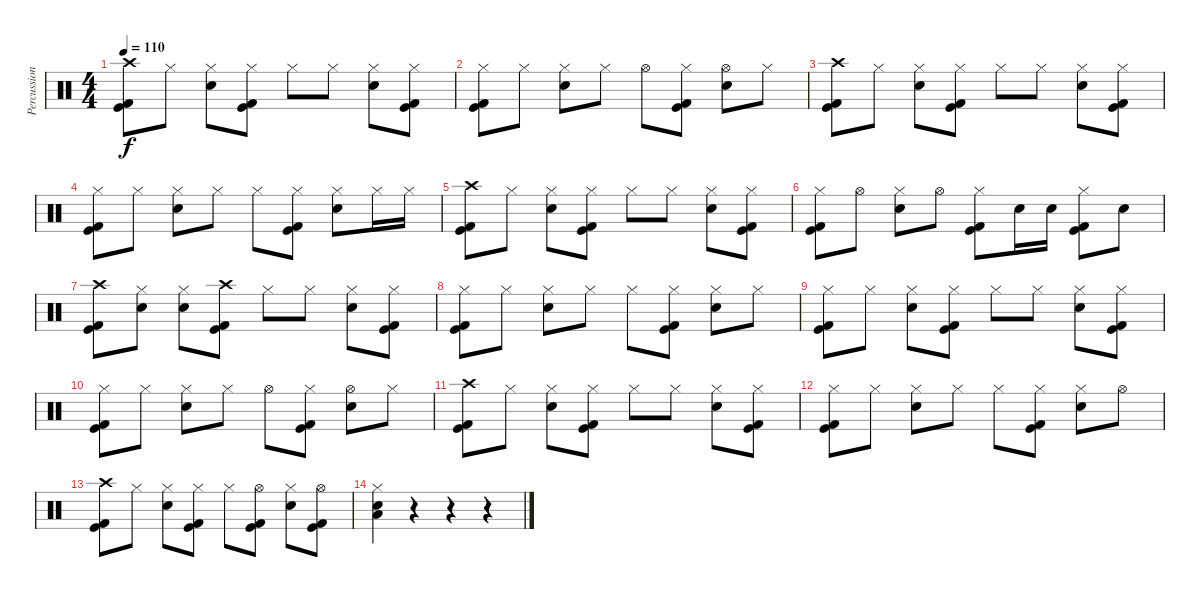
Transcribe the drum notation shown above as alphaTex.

\track ("Percussion" "Percussion") {instrument percussion}
\staff {score}
\articulation defaults
\ts (4 4)
\tempo 110
\clef neutral
\ks c
("Crash high (hit)" "Kick (hit)" "Kick (hit) 2").8{dy f} "Hi-Hat (closed)".8 ("Hi-Hat (closed)" "Snare (hit) 2").8 ("Hi-Hat (closed)" "Kick (hit)" "Kick (hit) 2").8 "Hi-Hat (closed)".8 "Hi-Hat (closed)".8 ("Hi-Hat (closed)" "Snare (hit) 2").8 ("Hi-Hat (closed)" "Kick (hit)" "Kick (hit) 2").8 |
("Hi-Hat (closed)" "Kick (hit)" "Kick (hit) 2").8 "Hi-Hat (closed)".8 ("Hi-Hat (closed)" "Snare (hit) 2").8 "Hi-Hat (closed)".8 "Hi-Hat (open)".8 ("Hi-Hat (closed)" "Kick (hit)" "Kick (hit) 2").8 ("Hi-Hat (open)" "Snare (hit) 2").8 "Hi-Hat (closed)".8 |
("Crash high (hit)" "Kick (hit)" "Kick (hit) 2").8 "Hi-Hat (closed)".8 ("Hi-Hat (closed)" "Snare (hit) 2").8 ("Hi-Hat (closed)" "Kick (hit)" "Kick (hit) 2").8 "Hi-Hat (closed)".8 "Hi-Hat (closed)".8 ("Hi-Hat (closed)" "Snare (hit) 2").8 ("Hi-Hat (closed)" "Kick (hit)" "Kick (hit) 2").8 |
("Hi-Hat (closed)" "Kick (hit)" "Kick (hit) 2").8 "Hi-Hat (closed)".8 ("Hi-Hat (closed)" "Snare (hit) 2").8 "Hi-Hat (closed)".8 "Hi-Hat (closed)".8 ("Hi-Hat (closed)" "Kick (hit)" "Kick (hit) 2").8 ("Hi-Hat (closed)" "Snare (hit) 2").8 "Hi-Hat (closed)".16 "Hi-Hat (closed)".16 |
("Crash high (hit)" "Kick (hit)" "Kick (hit) 2").8 "Hi-Hat (closed)".8 ("Hi-Hat (closed)" "Snare (hit) 2").8 ("Hi-Hat (closed)" "Kick (hit)" "Kick (hit) 2").8 "Hi-Hat (closed)".8 "Hi-Hat (closed)".8 ("Hi-Hat (closed)" "Snare (hit) 2").8 ("Hi-Hat (closed)" "Kick (hit)" "Kick (hit) 2").8 |
("Hi-Hat (closed)" "Kick (hit)" "Kick (hit) 2").8 "Hi-Hat (open)".8 ("Hi-Hat (closed)" "Snare (hit) 2").8 "Hi-Hat (open)".8 ("Hi-Hat (closed)" "Kick (hit)" "Kick (hit) 2").8 "Snare (hit) 2".16 "Snare (hit) 2".16 ("Hi-Hat (closed)" "Kick (hit)" "Kick (hit) 2").8 "Snare (hit) 2".8 |
("Crash high (hit)" "Kick (hit)" "Kick (hit) 2").8 ("Hi-Hat (closed)" "Snare (hit) 2").8 ("Hi-Hat (closed)" "Snare (hit) 2").8 ("Crash high (hit)" "Kick (hit)" "Kick (hit) 2").8 "Hi-Hat (closed)".8 "Hi-Hat (closed)".8 ("Hi-Hat (closed)" "Snare (hit) 2").8 ("Hi-Hat (closed)" "Kick (hit)" "Kick (hit) 2").8 |
("Hi-Hat (closed)" "Kick (hit)" "Kick (hit) 2").8 "Hi-Hat (closed)".8 ("Hi-Hat (closed)" "Snare (hit) 2").8 "Hi-Hat (closed)".8 "Hi-Hat (closed)".8 ("Hi-Hat (closed)" "Kick (hit)" "Kick (hit) 2").8 ("Hi-Hat (closed)" "Snare (hit) 2").8 "Hi-Hat (closed)".8 |
("Hi-Hat (closed)" "Kick (hit)" "Kick (hit) 2").8 "Hi-Hat (closed)".8 ("Hi-Hat (closed)" "Snare (hit) 2").8 ("Hi-Hat (closed)" "Kick (hit)" "Kick (hit) 2").8 "Hi-Hat (closed)".8 "Hi-Hat (closed)".8 ("Hi-Hat (closed)" "Snare (hit) 2").8 ("Hi-Hat (closed)" "Kick (hit)" "Kick (hit) 2").8 |
("Hi-Hat (closed)" "Kick (hit)" "Kick (hit) 2").8 "Hi-Hat (closed)".8 ("Hi-Hat (closed)" "Snare (hit) 2").8 "Hi-Hat (closed)".8 "Hi-Hat (open)".8 ("Hi-Hat (closed)" "Kick (hit)" "Kick (hit) 2").8 ("Hi-Hat (open)" "Snare (hit) 2").8 "Hi-Hat (closed)".8 |
("Crash high (hit)" "Kick (hit)" "Kick (hit) 2").8 "Hi-Hat (closed)".8 ("Hi-Hat (closed)" "Snare (hit) 2").8 ("Hi-Hat (closed)" "Kick (hit)" "Kick (hit) 2").8 "Hi-Hat (closed)".8 "Hi-Hat (closed)".8 ("Hi-Hat (closed)" "Snare (hit) 2").8 ("Hi-Hat (closed)" "Kick (hit)" "Kick (hit) 2").8 |
("Hi-Hat (closed)" "Kick (hit)" "Kick (hit) 2").8 "Hi-Hat (closed)".8 ("Hi-Hat (closed)" "Snare (hit) 2").8 "Hi-Hat (closed)".8 "Hi-Hat (closed)".8 ("Hi-Hat (closed)" "Kick (hit)" "Kick (hit) 2").8 ("Hi-Hat (closed)" "Snare (hit) 2").8 "Hi-Hat (open)".8 |
("Crash high (hit)" "Kick (hit)" "Kick (hit) 2").8 "Hi-Hat (closed)".8 ("Hi-Hat (closed)" "Snare (hit) 2").8 ("Hi-Hat (closed)" "Kick (hit)" "Kick (hit) 2").8 "Hi-Hat (closed)".8 ("Hi-Hat (open)" "Kick (hit)" "Kick (hit) 2").8 ("Hi-Hat (closed)" "Snare (hit) 2").8 ("Hi-Hat (open)" "Kick (hit)" "Kick (hit) 2").8 |
("Hi-Hat (closed)" "Snare (hit) 2" "Low Tom (hit)").4 r.4 r.4 r.4
